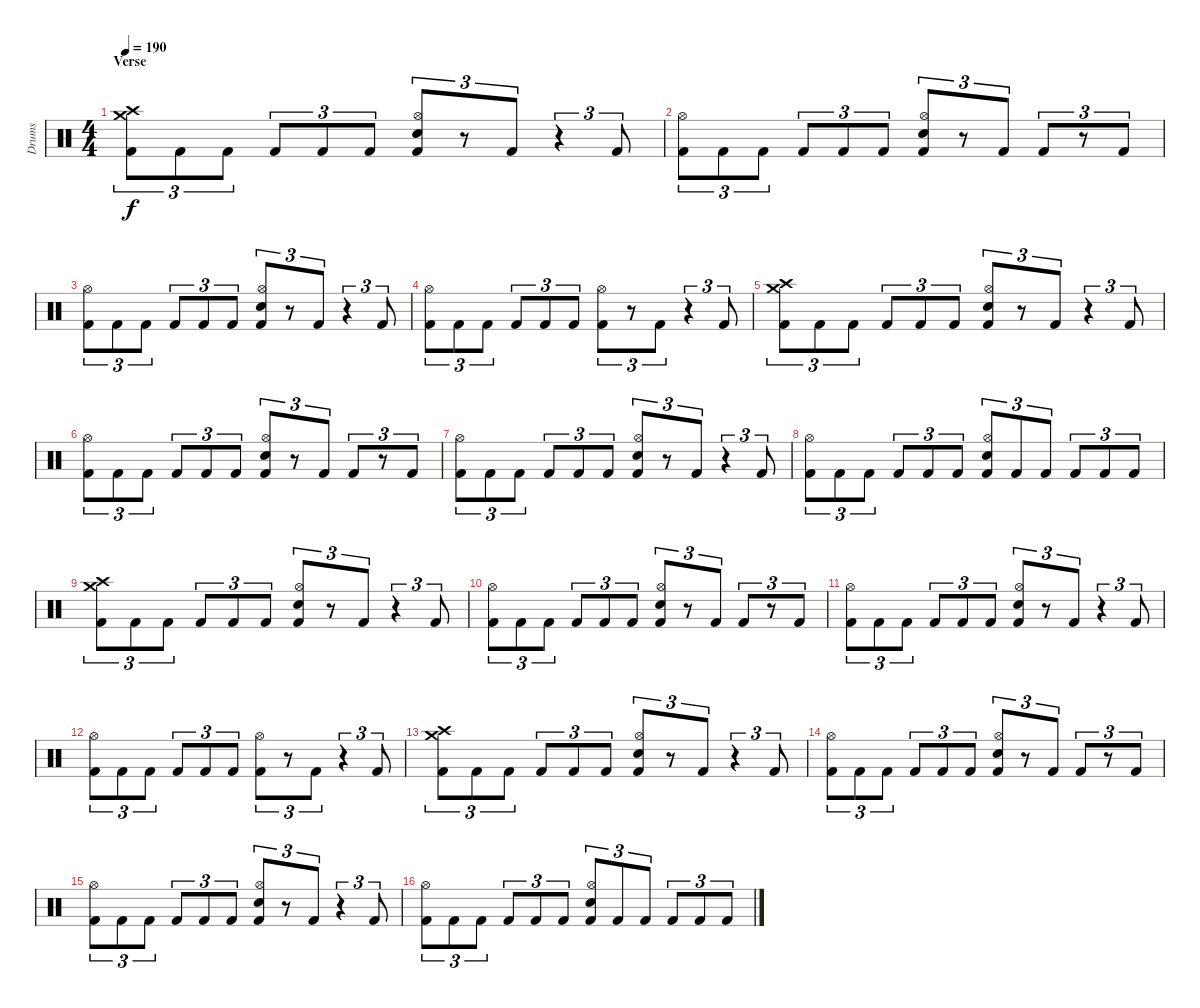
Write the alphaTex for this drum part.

\track ("Drums" "Drums") {instrument percussion}
\staff {score}
\articulation defaults
\ts (4 4)
\section ("" "Verse")
\tempo 190
\clef neutral
\ks c
("Crash high (hit)" "Crash medium (hit)" "Kick (hit) 2").8{tu (3 2) dy f} "Kick (hit) 2".8{tu (3 2)} "Kick (hit) 2".8{tu (3 2)} "Kick (hit) 2".8{tu (3 2)} "Kick (hit) 2".8{tu (3 2)} "Kick (hit) 2".8{tu (3 2)} ("Hi-Hat (open)" "Electric Snare (hit)" "Kick (hit) 2").8{tu (3 2)} r.8{tu (3 2)} "Kick (hit) 2".8{tu (3 2)} r.4{tu (3 2)} "Kick (hit) 2".8{tu (3 2)} |
("Hi-Hat (open)" "Kick (hit) 2").8{tu (3 2)} "Kick (hit) 2".8{tu (3 2)} "Kick (hit) 2".8{tu (3 2)} "Kick (hit) 2".8{tu (3 2)} "Kick (hit) 2".8{tu (3 2)} "Kick (hit) 2".8{tu (3 2)} ("Hi-Hat (open)" "Electric Snare (hit)" "Kick (hit) 2").8{tu (3 2)} r.8{tu (3 2)} "Kick (hit) 2".8{tu (3 2)} "Kick (hit) 2".8{tu (3 2)} r.8{tu (3 2)} "Kick (hit) 2".8{tu (3 2)} |
("Hi-Hat (open)" "Kick (hit) 2").8{tu (3 2)} "Kick (hit) 2".8{tu (3 2)} "Kick (hit) 2".8{tu (3 2)} "Kick (hit) 2".8{tu (3 2)} "Kick (hit) 2".8{tu (3 2)} "Kick (hit) 2".8{tu (3 2)} ("Hi-Hat (open)" "Electric Snare (hit)" "Kick (hit) 2").8{tu (3 2)} r.8{tu (3 2)} "Kick (hit) 2".8{tu (3 2)} r.4{tu (3 2)} "Kick (hit) 2".8{tu (3 2)} |
("Hi-Hat (open)" "Kick (hit) 2").8{tu (3 2)} "Kick (hit) 2".8{tu (3 2)} "Kick (hit) 2".8{tu (3 2)} "Kick (hit) 2".8{tu (3 2)} "Kick (hit) 2".8{tu (3 2)} "Kick (hit) 2".8{tu (3 2)} ("Hi-Hat (open)" "Kick (hit) 2").8{tu (3 2)} r.8{tu (3 2)} "Kick (hit) 2".8{tu (3 2)} r.4{tu (3 2)} "Kick (hit) 2".8{tu (3 2)} |
("Crash high (hit)" "Crash medium (hit)" "Kick (hit) 2").8{tu (3 2)} "Kick (hit) 2".8{tu (3 2)} "Kick (hit) 2".8{tu (3 2)} "Kick (hit) 2".8{tu (3 2)} "Kick (hit) 2".8{tu (3 2)} "Kick (hit) 2".8{tu (3 2)} ("Hi-Hat (open)" "Electric Snare (hit)" "Kick (hit) 2").8{tu (3 2)} r.8{tu (3 2)} "Kick (hit) 2".8{tu (3 2)} r.4{tu (3 2)} "Kick (hit) 2".8{tu (3 2)} |
("Hi-Hat (open)" "Kick (hit) 2").8{tu (3 2)} "Kick (hit) 2".8{tu (3 2)} "Kick (hit) 2".8{tu (3 2)} "Kick (hit) 2".8{tu (3 2)} "Kick (hit) 2".8{tu (3 2)} "Kick (hit) 2".8{tu (3 2)} ("Hi-Hat (open)" "Electric Snare (hit)" "Kick (hit) 2").8{tu (3 2)} r.8{tu (3 2)} "Kick (hit) 2".8{tu (3 2)} "Kick (hit) 2".8{tu (3 2)} r.8{tu (3 2)} "Kick (hit) 2".8{tu (3 2)} |
("Hi-Hat (open)" "Kick (hit) 2").8{tu (3 2)} "Kick (hit) 2".8{tu (3 2)} "Kick (hit) 2".8{tu (3 2)} "Kick (hit) 2".8{tu (3 2)} "Kick (hit) 2".8{tu (3 2)} "Kick (hit) 2".8{tu (3 2)} ("Hi-Hat (open)" "Electric Snare (hit)" "Kick (hit) 2").8{tu (3 2)} r.8{tu (3 2)} "Kick (hit) 2".8{tu (3 2)} r.4{tu (3 2)} "Kick (hit) 2".8{tu (3 2)} |
("Hi-Hat (open)" "Kick (hit) 2").8{tu (3 2)} "Kick (hit) 2".8{tu (3 2)} "Kick (hit) 2".8{tu (3 2)} "Kick (hit) 2".8{tu (3 2)} "Kick (hit) 2".8{tu (3 2)} "Kick (hit) 2".8{tu (3 2)} ("Hi-Hat (open)" "Electric Snare (hit)" "Kick (hit) 2").8{tu (3 2)} "Kick (hit) 2".8{tu (3 2)} "Kick (hit) 2".8{tu (3 2)} "Kick (hit) 2".8{tu (3 2)} "Kick (hit) 2".8{tu (3 2)} "Kick (hit) 2".8{tu (3 2)} |
("Crash high (hit)" "Crash medium (hit)" "Kick (hit) 2").8{tu (3 2)} "Kick (hit) 2".8{tu (3 2)} "Kick (hit) 2".8{tu (3 2)} "Kick (hit) 2".8{tu (3 2)} "Kick (hit) 2".8{tu (3 2)} "Kick (hit) 2".8{tu (3 2)} ("Hi-Hat (open)" "Electric Snare (hit)" "Kick (hit) 2").8{tu (3 2)} r.8{tu (3 2)} "Kick (hit) 2".8{tu (3 2)} r.4{tu (3 2)} "Kick (hit) 2".8{tu (3 2)} |
("Hi-Hat (open)" "Kick (hit) 2").8{tu (3 2)} "Kick (hit) 2".8{tu (3 2)} "Kick (hit) 2".8{tu (3 2)} "Kick (hit) 2".8{tu (3 2)} "Kick (hit) 2".8{tu (3 2)} "Kick (hit) 2".8{tu (3 2)} ("Hi-Hat (open)" "Electric Snare (hit)" "Kick (hit) 2").8{tu (3 2)} r.8{tu (3 2)} "Kick (hit) 2".8{tu (3 2)} "Kick (hit) 2".8{tu (3 2)} r.8{tu (3 2)} "Kick (hit) 2".8{tu (3 2)} |
("Hi-Hat (open)" "Kick (hit) 2").8{tu (3 2)} "Kick (hit) 2".8{tu (3 2)} "Kick (hit) 2".8{tu (3 2)} "Kick (hit) 2".8{tu (3 2)} "Kick (hit) 2".8{tu (3 2)} "Kick (hit) 2".8{tu (3 2)} ("Hi-Hat (open)" "Electric Snare (hit)" "Kick (hit) 2").8{tu (3 2)} r.8{tu (3 2)} "Kick (hit) 2".8{tu (3 2)} r.4{tu (3 2)} "Kick (hit) 2".8{tu (3 2)} |
("Hi-Hat (open)" "Kick (hit) 2").8{tu (3 2)} "Kick (hit) 2".8{tu (3 2)} "Kick (hit) 2".8{tu (3 2)} "Kick (hit) 2".8{tu (3 2)} "Kick (hit) 2".8{tu (3 2)} "Kick (hit) 2".8{tu (3 2)} ("Hi-Hat (open)" "Kick (hit) 2").8{tu (3 2)} r.8{tu (3 2)} "Kick (hit) 2".8{tu (3 2)} r.4{tu (3 2)} "Kick (hit) 2".8{tu (3 2)} |
("Crash high (hit)" "Crash medium (hit)" "Kick (hit) 2").8{tu (3 2)} "Kick (hit) 2".8{tu (3 2)} "Kick (hit) 2".8{tu (3 2)} "Kick (hit) 2".8{tu (3 2)} "Kick (hit) 2".8{tu (3 2)} "Kick (hit) 2".8{tu (3 2)} ("Hi-Hat (open)" "Electric Snare (hit)" "Kick (hit) 2").8{tu (3 2)} r.8{tu (3 2)} "Kick (hit) 2".8{tu (3 2)} r.4{tu (3 2)} "Kick (hit) 2".8{tu (3 2)} |
("Hi-Hat (open)" "Kick (hit) 2").8{tu (3 2)} "Kick (hit) 2".8{tu (3 2)} "Kick (hit) 2".8{tu (3 2)} "Kick (hit) 2".8{tu (3 2)} "Kick (hit) 2".8{tu (3 2)} "Kick (hit) 2".8{tu (3 2)} ("Hi-Hat (open)" "Electric Snare (hit)" "Kick (hit) 2").8{tu (3 2)} r.8{tu (3 2)} "Kick (hit) 2".8{tu (3 2)} "Kick (hit) 2".8{tu (3 2)} r.8{tu (3 2)} "Kick (hit) 2".8{tu (3 2)} |
("Hi-Hat (open)" "Kick (hit) 2").8{tu (3 2)} "Kick (hit) 2".8{tu (3 2)} "Kick (hit) 2".8{tu (3 2)} "Kick (hit) 2".8{tu (3 2)} "Kick (hit) 2".8{tu (3 2)} "Kick (hit) 2".8{tu (3 2)} ("Hi-Hat (open)" "Electric Snare (hit)" "Kick (hit) 2").8{tu (3 2)} r.8{tu (3 2)} "Kick (hit) 2".8{tu (3 2)} r.4{tu (3 2)} "Kick (hit) 2".8{tu (3 2)} |
("Hi-Hat (open)" "Kick (hit) 2").8{tu (3 2)} "Kick (hit) 2".8{tu (3 2)} "Kick (hit) 2".8{tu (3 2)} "Kick (hit) 2".8{tu (3 2)} "Kick (hit) 2".8{tu (3 2)} "Kick (hit) 2".8{tu (3 2)} ("Hi-Hat (open)" "Electric Snare (hit)" "Kick (hit) 2").8{tu (3 2)} "Kick (hit) 2".8{tu (3 2)} "Kick (hit) 2".8{tu (3 2)} "Kick (hit) 2".8{tu (3 2)} "Kick (hit) 2".8{tu (3 2)} "Kick (hit) 2".8{tu (3 2)}
